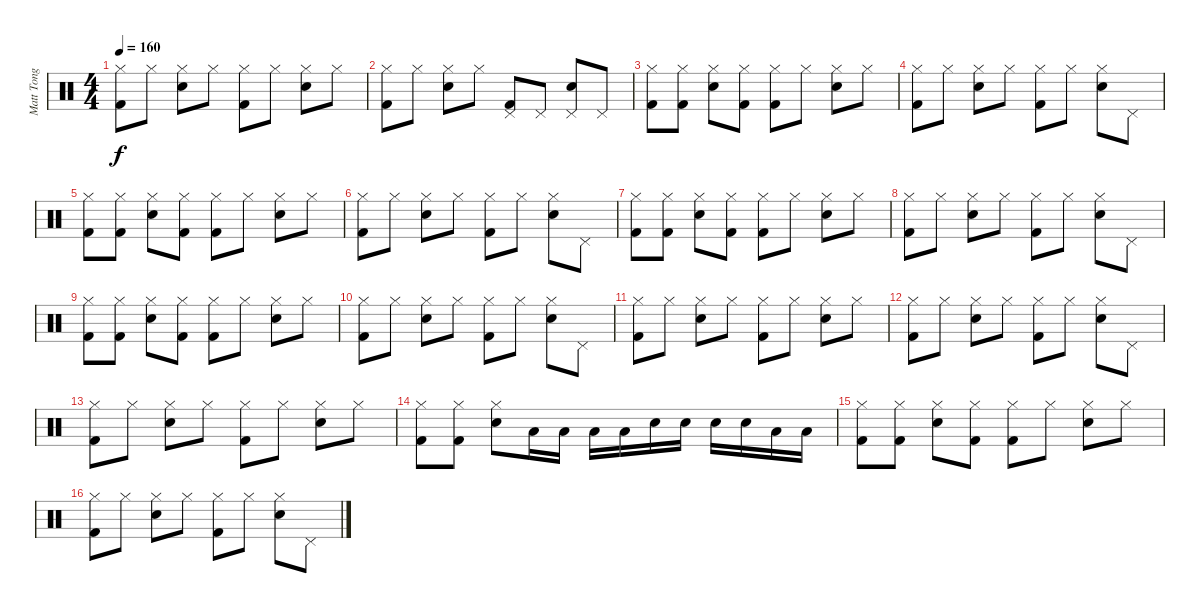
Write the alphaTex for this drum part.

\track ("Matt Tong" "Matt Tong") {instrument percussion}
\staff {score}
\articulation defaults
\ts (4 4)
\tempo 160
\clef neutral
\ks c
("Hi-Hat (closed)" "Kick (hit) 2").8{dy f} "Hi-Hat (closed)".8 ("Hi-Hat (closed)" "Snare (hit) 2").8 "Hi-Hat (closed)".8 ("Hi-Hat (closed)" "Kick (hit) 2").8 "Hi-Hat (closed)".8 ("Hi-Hat (closed)" "Snare (hit) 2").8 "Hi-Hat (closed)".8 |
("Hi-Hat (closed)" "Kick (hit) 2").8 "Hi-Hat (closed)".8 ("Hi-Hat (closed)" "Snare (hit) 2").8 "Hi-Hat (closed)".8 ("Pedal Hi-Hat (hit)" "Kick (hit) 2").8 "Pedal Hi-Hat (hit)".8 ("Pedal Hi-Hat (hit)" "Snare (hit) 2").8 "Pedal Hi-Hat (hit)".8 |
("Hi-Hat (closed)" "Kick (hit) 2").8 ("Hi-Hat (closed)" "Kick (hit) 2").8 ("Hi-Hat (closed)" "Snare (hit) 2").8 ("Hi-Hat (closed)" "Kick (hit) 2").8 ("Hi-Hat (closed)" "Kick (hit) 2").8 "Hi-Hat (closed)".8 ("Hi-Hat (closed)" "Snare (hit) 2").8 "Hi-Hat (closed)".8 |
("Hi-Hat (closed)" "Kick (hit) 2").8 "Hi-Hat (closed)".8 ("Hi-Hat (closed)" "Snare (hit) 2").8 "Hi-Hat (closed)".8 ("Hi-Hat (closed)" "Kick (hit) 2").8 "Hi-Hat (closed)".8 ("Hi-Hat (closed)" "Snare (hit) 2").8 "Pedal Hi-Hat (hit)".8 |
("Hi-Hat (closed)" "Kick (hit) 2").8 ("Hi-Hat (closed)" "Kick (hit) 2").8 ("Hi-Hat (closed)" "Snare (hit) 2").8 ("Hi-Hat (closed)" "Kick (hit) 2").8 ("Hi-Hat (closed)" "Kick (hit) 2").8 "Hi-Hat (closed)".8 ("Hi-Hat (closed)" "Snare (hit) 2").8 "Hi-Hat (closed)".8 |
("Hi-Hat (closed)" "Kick (hit) 2").8 "Hi-Hat (closed)".8 ("Hi-Hat (closed)" "Snare (hit) 2").8 "Hi-Hat (closed)".8 ("Hi-Hat (closed)" "Kick (hit) 2").8 "Hi-Hat (closed)".8 ("Hi-Hat (closed)" "Snare (hit) 2").8 "Pedal Hi-Hat (hit)".8 |
("Hi-Hat (closed)" "Kick (hit) 2").8 ("Hi-Hat (closed)" "Kick (hit) 2").8 ("Hi-Hat (closed)" "Snare (hit) 2").8 ("Hi-Hat (closed)" "Kick (hit) 2").8 ("Hi-Hat (closed)" "Kick (hit) 2").8 "Hi-Hat (closed)".8 ("Hi-Hat (closed)" "Snare (hit) 2").8 "Hi-Hat (closed)".8 |
("Hi-Hat (closed)" "Kick (hit) 2").8 "Hi-Hat (closed)".8 ("Hi-Hat (closed)" "Snare (hit) 2").8 "Hi-Hat (closed)".8 ("Hi-Hat (closed)" "Kick (hit) 2").8 "Hi-Hat (closed)".8 ("Hi-Hat (closed)" "Snare (hit) 2").8 "Pedal Hi-Hat (hit)".8 |
("Hi-Hat (closed)" "Kick (hit) 2").8 ("Hi-Hat (closed)" "Kick (hit) 2").8 ("Hi-Hat (closed)" "Snare (hit) 2").8 ("Hi-Hat (closed)" "Kick (hit) 2").8 ("Hi-Hat (closed)" "Kick (hit) 2").8 "Hi-Hat (closed)".8 ("Hi-Hat (closed)" "Snare (hit) 2").8 "Hi-Hat (closed)".8 |
("Hi-Hat (closed)" "Kick (hit) 2").8 "Hi-Hat (closed)".8 ("Hi-Hat (closed)" "Snare (hit) 2").8 "Hi-Hat (closed)".8 ("Hi-Hat (closed)" "Kick (hit) 2").8 "Hi-Hat (closed)".8 ("Hi-Hat (closed)" "Snare (hit) 2").8 "Pedal Hi-Hat (hit)".8 |
("Hi-Hat (closed)" "Kick (hit) 2").8 "Hi-Hat (closed)".8 ("Hi-Hat (closed)" "Snare (hit) 2").8 "Hi-Hat (closed)".8 ("Hi-Hat (closed)" "Kick (hit) 2").8 "Hi-Hat (closed)".8 ("Hi-Hat (closed)" "Snare (hit) 2").8 "Hi-Hat (closed)".8 |
("Hi-Hat (closed)" "Kick (hit) 2").8 "Hi-Hat (closed)".8 ("Hi-Hat (closed)" "Snare (hit) 2").8 "Hi-Hat (closed)".8 ("Hi-Hat (closed)" "Kick (hit) 2").8 "Hi-Hat (closed)".8 ("Hi-Hat (closed)" "Snare (hit) 2").8 "Pedal Hi-Hat (hit)".8 |
("Hi-Hat (closed)" "Kick (hit) 2").8 "Hi-Hat (closed)".8 ("Hi-Hat (closed)" "Snare (hit) 2").8 "Hi-Hat (closed)".8 ("Hi-Hat (closed)" "Kick (hit) 2").8 "Hi-Hat (closed)".8 ("Hi-Hat (closed)" "Snare (hit) 2").8 "Hi-Hat (closed)".8 |
("Hi-Hat (closed)" "Kick (hit) 2").8 ("Hi-Hat (closed)" "Kick (hit) 2").8 ("Hi-Hat (closed)" "Snare (hit) 2").8 "Low Tom (hit)".16 "Low Tom (hit)".16 "Low Floor Tom (hit)".16 "Low Floor Tom (hit)".16 "Snare (hit) 2".16 "Snare (hit) 2".16 "Snare (hit) 2".16 "Snare (hit) 2".16 "Low Floor Tom (hit)".16 "Low Floor Tom (hit)".16 |
("Hi-Hat (closed)" "Kick (hit) 2").8 ("Hi-Hat (closed)" "Kick (hit) 2").8 ("Hi-Hat (closed)" "Snare (hit) 2").8 ("Hi-Hat (closed)" "Kick (hit) 2").8 ("Hi-Hat (closed)" "Kick (hit) 2").8 "Hi-Hat (closed)".8 ("Hi-Hat (closed)" "Snare (hit) 2").8 "Hi-Hat (closed)".8 |
("Hi-Hat (closed)" "Kick (hit) 2").8 "Hi-Hat (closed)".8 ("Hi-Hat (closed)" "Snare (hit) 2").8 "Hi-Hat (closed)".8 ("Hi-Hat (closed)" "Kick (hit) 2").8 "Hi-Hat (closed)".8 ("Hi-Hat (closed)" "Snare (hit) 2").8 "Pedal Hi-Hat (hit)".8
